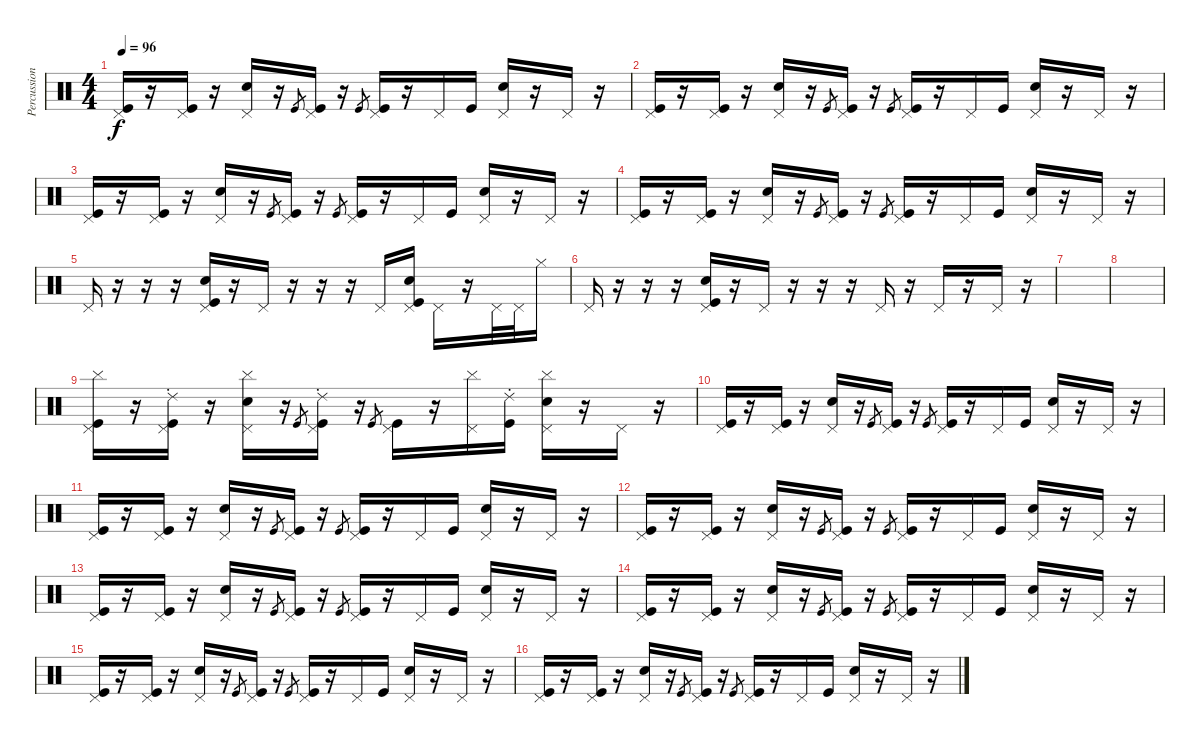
\track ("Percussions" "Percussion") {instrument percussion}
\staff {score}
\articulation defaults
\ts (4 4)
\tempo 96
\clef neutral
\ks c
("Pedal Hi-Hat (hit)" "Kick (hit)").16{dy f} r.16 ("Pedal Hi-Hat (hit)" "Kick (hit)").16 r.16 ("Pedal Hi-Hat (hit)" "Electric Snare (hit)").16 r.16 "Kick (hit)".8{gr} ("Pedal Hi-Hat (hit)" "Kick (hit)").16 r.16 "Kick (hit)".8{gr} ("Pedal Hi-Hat (hit)" "Kick (hit)").16 r.16 "Pedal Hi-Hat (hit)".16 "Kick (hit)".16 ("Pedal Hi-Hat (hit)" "Electric Snare (hit)").16 r.16 "Pedal Hi-Hat (hit)".16 r.16 |
("Pedal Hi-Hat (hit)" "Kick (hit)").16 r.16 ("Pedal Hi-Hat (hit)" "Kick (hit)").16 r.16 ("Pedal Hi-Hat (hit)" "Electric Snare (hit)").16 r.16 "Kick (hit)".8{gr} ("Pedal Hi-Hat (hit)" "Kick (hit)").16 r.16 "Kick (hit)".8{gr} ("Pedal Hi-Hat (hit)" "Kick (hit)").16 r.16 "Pedal Hi-Hat (hit)".16 "Kick (hit)".16 ("Pedal Hi-Hat (hit)" "Electric Snare (hit)").16 r.16 "Pedal Hi-Hat (hit)".16 r.16 |
("Pedal Hi-Hat (hit)" "Kick (hit)").16 r.16 ("Pedal Hi-Hat (hit)" "Kick (hit)").16 r.16 ("Pedal Hi-Hat (hit)" "Electric Snare (hit)").16 r.16 "Kick (hit)".8{gr} ("Pedal Hi-Hat (hit)" "Kick (hit)").16 r.16 "Kick (hit)".8{gr} ("Pedal Hi-Hat (hit)" "Kick (hit)").16 r.16 "Pedal Hi-Hat (hit)".16 "Kick (hit)".16 ("Pedal Hi-Hat (hit)" "Electric Snare (hit)").16 r.16 "Pedal Hi-Hat (hit)".16 r.16 |
("Pedal Hi-Hat (hit)" "Kick (hit)").16 r.16 ("Pedal Hi-Hat (hit)" "Kick (hit)").16 r.16 ("Pedal Hi-Hat (hit)" "Electric Snare (hit)").16 r.16 "Kick (hit)".8{gr} ("Pedal Hi-Hat (hit)" "Kick (hit)").16 r.16 "Kick (hit)".8{gr} ("Pedal Hi-Hat (hit)" "Kick (hit)").16 r.16 "Pedal Hi-Hat (hit)".16 "Kick (hit)".16 ("Pedal Hi-Hat (hit)" "Electric Snare (hit)").16 r.16 "Pedal Hi-Hat (hit)".16 r.16 |
"Pedal Hi-Hat (hit)".16{volume 8} r.16 r.16 r.16 ("Pedal Hi-Hat (hit)" "Snare (hit) 2" "Kick (hit)").16 r.16 "Pedal Hi-Hat (hit)".16 r.16 r.16 r.16 "Pedal Hi-Hat (hit)".16 ("Pedal Hi-Hat (hit)" "Snare (hit) 2" "Kick (hit)").16 "Pedal Hi-Hat (hit)".16 r.16 "Pedal Hi-Hat (hit)".32 "Pedal Hi-Hat (hit)".32 "Hi-Hat (closed)".16 |
"Pedal Hi-Hat (hit)".16{volume 8} r.16 r.16 r.16 ("Pedal Hi-Hat (hit)" "Snare (hit) 2" "Kick (hit)").16 r.16 "Pedal Hi-Hat (hit)".16 r.16 r.16 r.16 "Pedal Hi-Hat (hit)".16 r.16 "Pedal Hi-Hat (hit)".16 r.16 "Pedal Hi-Hat (hit)".16 r.16 |
|
|
("Pedal Hi-Hat (hit)" "Cymbal (hit)" "Kick (hit)").16{volume 14} r.16 ("Pedal Hi-Hat (hit)" "Ride (choke) 2" "Kick (hit)").16 r.16 ("Pedal Hi-Hat (hit)" "Cymbal (hit)" "Electric Snare (hit)").16 r.16 "Kick (hit)".8{gr} ("Pedal Hi-Hat (hit)" "Ride (choke) 2" "Kick (hit)").16 r.16 "Kick (hit)".8{gr} ("Pedal Hi-Hat (hit)" "Kick (hit)").16 r.16 ("Pedal Hi-Hat (hit)" "Cymbal (hit)").16 ("Ride (choke) 2" "Kick (hit)").16 ("Pedal Hi-Hat (hit)" "Cymbal (hit)" "Electric Snare (hit)").16 r.16 "Pedal Hi-Hat (hit)".16 r.16 |
("Pedal Hi-Hat (hit)" "Kick (hit)").16 r.16 ("Pedal Hi-Hat (hit)" "Kick (hit)").16 r.16 ("Pedal Hi-Hat (hit)" "Electric Snare (hit)").16 r.16 "Kick (hit)".8{gr} ("Pedal Hi-Hat (hit)" "Kick (hit)").16 r.16 "Kick (hit)".8{gr} ("Pedal Hi-Hat (hit)" "Kick (hit)").16 r.16 "Pedal Hi-Hat (hit)".16 "Kick (hit)".16 ("Pedal Hi-Hat (hit)" "Electric Snare (hit)").16 r.16 "Pedal Hi-Hat (hit)".16 r.16 |
("Pedal Hi-Hat (hit)" "Kick (hit)").16 r.16 ("Pedal Hi-Hat (hit)" "Kick (hit)").16 r.16 ("Pedal Hi-Hat (hit)" "Electric Snare (hit)").16 r.16 "Kick (hit)".8{gr} ("Pedal Hi-Hat (hit)" "Kick (hit)").16 r.16 "Kick (hit)".8{gr} ("Pedal Hi-Hat (hit)" "Kick (hit)").16 r.16 "Pedal Hi-Hat (hit)".16 "Kick (hit)".16 ("Pedal Hi-Hat (hit)" "Electric Snare (hit)").16 r.16 "Pedal Hi-Hat (hit)".16 r.16 |
("Pedal Hi-Hat (hit)" "Kick (hit)").16 r.16 ("Pedal Hi-Hat (hit)" "Kick (hit)").16 r.16 ("Pedal Hi-Hat (hit)" "Electric Snare (hit)").16 r.16 "Kick (hit)".8{gr} ("Pedal Hi-Hat (hit)" "Kick (hit)").16 r.16 "Kick (hit)".8{gr} ("Pedal Hi-Hat (hit)" "Kick (hit)").16 r.16 "Pedal Hi-Hat (hit)".16 "Kick (hit)".16 ("Pedal Hi-Hat (hit)" "Electric Snare (hit)").16 r.16 "Pedal Hi-Hat (hit)".16 r.16 |
("Pedal Hi-Hat (hit)" "Kick (hit)").16 r.16 ("Pedal Hi-Hat (hit)" "Kick (hit)").16 r.16 ("Pedal Hi-Hat (hit)" "Electric Snare (hit)").16 r.16 "Kick (hit)".8{gr} ("Pedal Hi-Hat (hit)" "Kick (hit)").16 r.16 "Kick (hit)".8{gr} ("Pedal Hi-Hat (hit)" "Kick (hit)").16 r.16 "Pedal Hi-Hat (hit)".16 "Kick (hit)".16 ("Pedal Hi-Hat (hit)" "Electric Snare (hit)").16 r.16 "Pedal Hi-Hat (hit)".16 r.16 |
("Pedal Hi-Hat (hit)" "Kick (hit)").16 r.16 ("Pedal Hi-Hat (hit)" "Kick (hit)").16 r.16 ("Pedal Hi-Hat (hit)" "Electric Snare (hit)").16 r.16 "Kick (hit)".8{gr} ("Pedal Hi-Hat (hit)" "Kick (hit)").16 r.16 "Kick (hit)".8{gr} ("Pedal Hi-Hat (hit)" "Kick (hit)").16 r.16 "Pedal Hi-Hat (hit)".16 "Kick (hit)".16 ("Pedal Hi-Hat (hit)" "Electric Snare (hit)").16 r.16 "Pedal Hi-Hat (hit)".16 r.16 |
("Pedal Hi-Hat (hit)" "Kick (hit)").16 r.16 ("Pedal Hi-Hat (hit)" "Kick (hit)").16 r.16 ("Pedal Hi-Hat (hit)" "Electric Snare (hit)").16 r.16 "Kick (hit)".8{gr} ("Pedal Hi-Hat (hit)" "Kick (hit)").16 r.16 "Kick (hit)".8{gr} ("Pedal Hi-Hat (hit)" "Kick (hit)").16 r.16 "Pedal Hi-Hat (hit)".16 "Kick (hit)".16 ("Pedal Hi-Hat (hit)" "Electric Snare (hit)").16 r.16 "Pedal Hi-Hat (hit)".16 r.16 |
("Pedal Hi-Hat (hit)" "Kick (hit)").16 r.16 ("Pedal Hi-Hat (hit)" "Kick (hit)").16 r.16 ("Pedal Hi-Hat (hit)" "Electric Snare (hit)").16 r.16 "Kick (hit)".8{gr} ("Pedal Hi-Hat (hit)" "Kick (hit)").16 r.16 "Kick (hit)".8{gr} ("Pedal Hi-Hat (hit)" "Kick (hit)").16 r.16 "Pedal Hi-Hat (hit)".16 "Kick (hit)".16 ("Pedal Hi-Hat (hit)" "Electric Snare (hit)").16 r.16 "Pedal Hi-Hat (hit)".16 r.16
